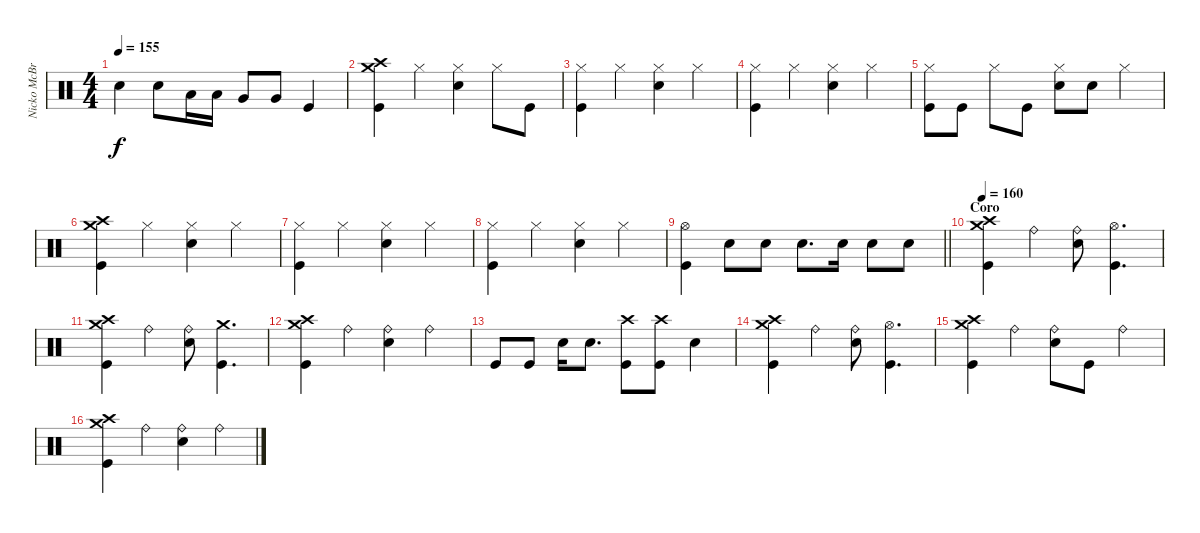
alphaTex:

\track ("Nicko McBrain" "Nicko McBr") {instrument percussion}
\staff {score}
\articulation defaults
\ts (4 4)
\tempo 155
\clef neutral
\ks c "Snare (hit) 2".4{dy f} "Snare (hit) 2".8 "Low Tom (hit)".16 "Low Tom (hit)".16 "Very Low Tom (hit)".8 "Very Low Tom (hit)".8 "Kick (hit)".4
|
("Crash medium (hit)" "Crash high (hit)" "Kick (hit)").4 "Hi-Hat (closed)".4 ("Hi-Hat (closed)" "Snare (hit) 2").4 "Hi-Hat (closed)".8 "Kick (hit)".8 |
("Hi-Hat (closed)" "Kick (hit)").4 "Hi-Hat (closed)".4 ("Hi-Hat (closed)" "Snare (hit) 2").4 "Hi-Hat (closed)".4 |
("Hi-Hat (closed)" "Kick (hit)").4 "Hi-Hat (closed)".4 ("Hi-Hat (closed)" "Snare (hit) 2").4 "Hi-Hat (closed)".4 |
("Hi-Hat (closed)" "Kick (hit)").8 "Kick (hit)".8 "Hi-Hat (closed)".8 "Kick (hit)".8 ("Hi-Hat (closed)" "Snare (hit) 2").8 "Snare (hit) 2".8 "Hi-Hat (closed)".4 |
("Crash medium (hit)" "Crash high (hit)" "Kick (hit)").4 "Hi-Hat (closed)".4 ("Hi-Hat (closed)" "Snare (hit) 2").4 "Hi-Hat (closed)".4 |
("Hi-Hat (closed)" "Kick (hit)").4 "Hi-Hat (closed)".4 ("Hi-Hat (closed)" "Snare (hit) 2").4 "Hi-Hat (closed)".4 |
("Hi-Hat (closed)" "Kick (hit)").4 "Hi-Hat (closed)".4 ("Hi-Hat (closed)" "Snare (hit) 2").4 "Hi-Hat (closed)".4 |
\barLineRight lightlight
("Hi-Hat (open)" "Kick (hit)").4 "Snare (hit) 2".8 "Snare (hit) 2".8 "Snare (hit) 2".8{d} "Snare (hit) 2".16 "Snare (hit) 2".8 "Snare (hit) 2".8 |
\section ("" "Coro")
\tempo 160
("Crash medium (hit)" "Crash high (hit)" "Kick (hit)").4 "Ride (bell)".4 ("Ride (bell)" "Snare (hit) 2").8 ("Hi-Hat (open)" "Kick (hit)").4{d} |
("Crash medium (hit)" "Crash high (hit)" "Kick (hit)").4 "Ride (bell)".4 ("Ride (bell)" "Snare (hit) 2").8 ("Crash medium (hit)" "Kick (hit)").4{d} |
("Crash medium (hit)" "Crash high (hit)" "Kick (hit)").4 "Ride (bell)".4 ("Ride (bell)" "Snare (hit) 2").4 "Ride (bell)".4 |
"Kick (hit)".8 "Kick (hit)".8 "Snare (hit) 2".16 "Snare (hit) 2".8{d} ("Crash high (hit)" "Kick (hit)").8 ("Crash high (hit)" "Kick (hit)").8 "Snare (hit) 2".4 |
("Crash medium (hit)" "Crash high (hit)" "Kick (hit)").4 "Ride (bell)".4 ("Ride (bell)" "Snare (hit) 2").8 ("Hi-Hat (open)" "Kick (hit)").4{d} |
("Crash medium (hit)" "Crash high (hit)" "Kick (hit)").4 "Ride (bell)".4 ("Ride (bell)" "Snare (hit) 2").8 "Kick (hit)".8 "Ride (bell)".4 |
("Crash medium (hit)" "Crash high (hit)" "Kick (hit)").4 "Ride (bell)".4 ("Ride (bell)" "Snare (hit) 2").4 "Ride (bell)".4
